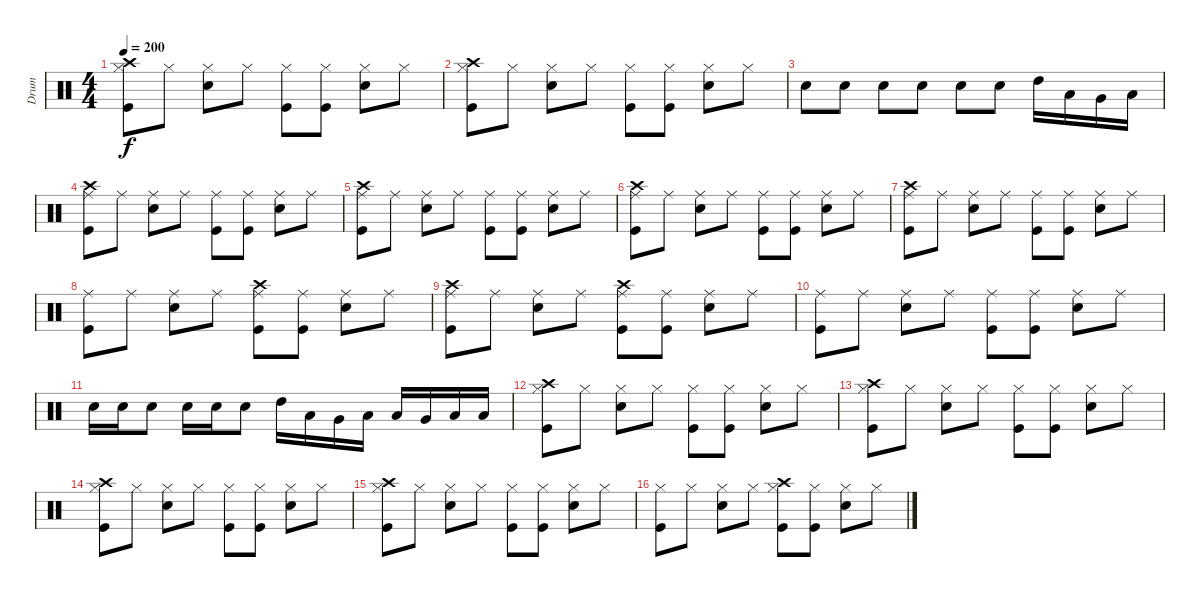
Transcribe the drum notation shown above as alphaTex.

\track ("Drum" "Drum") {instrument percussion}
\staff {score}
\articulation defaults
\ts (4 4)
\tempo 200
\clef neutral
\ks c
("Crash high (hit)" "Hi-Hat (closed)" "Kick (hit)").8{dy f} "Hi-Hat (closed)".8 ("Hi-Hat (closed)" "Electric Snare (hit)").8 "Hi-Hat (closed)".8 ("Hi-Hat (closed)" "Kick (hit)").8 ("Hi-Hat (closed)" "Kick (hit)").8 ("Hi-Hat (closed)" "Electric Snare (hit)").8 "Hi-Hat (closed)".8 |
("Crash high (hit)" "Hi-Hat (closed)" "Kick (hit)").8 "Hi-Hat (closed)".8 ("Hi-Hat (closed)" "Electric Snare (hit)").8 "Hi-Hat (closed)".8 ("Hi-Hat (closed)" "Kick (hit)").8 ("Hi-Hat (closed)" "Kick (hit)").8 ("Hi-Hat (closed)" "Electric Snare (hit)").8 "Hi-Hat (closed)".8 |
"Electric Snare (hit)".8 "Electric Snare (hit)".8 "Electric Snare (hit)".8 "Electric Snare (hit)".8 "Electric Snare (hit)".8 "Electric Snare (hit)".8 "High Tom (hit)".16 "Low Tom (hit)".16 "Very Low Tom (hit)".16 "Low Floor Tom (hit)".16 |
("Crash high (hit)" "Ride (middle)" "Kick (hit)").8 "Ride (middle)".8 ("Ride (middle)" "Electric Snare (hit)").8 "Ride (middle)".8 ("Ride (middle)" "Kick (hit)").8 ("Ride (middle)" "Kick (hit)").8 ("Ride (middle)" "Electric Snare (hit)").8 "Ride (middle)".8 |
("Crash high (hit)" "Ride (middle)" "Kick (hit)").8 "Ride (middle)".8 ("Ride (middle)" "Electric Snare (hit)").8 "Ride (middle)".8 ("Ride (middle)" "Kick (hit)").8 ("Ride (middle)" "Kick (hit)").8 ("Ride (middle)" "Electric Snare (hit)").8 "Ride (middle)".8 |
("Crash high (hit)" "Ride (middle)" "Kick (hit)").8 "Ride (middle)".8 ("Ride (middle)" "Electric Snare (hit)").8 "Ride (middle)".8 ("Ride (middle)" "Kick (hit)").8 ("Ride (middle)" "Kick (hit)").8 ("Ride (middle)" "Electric Snare (hit)").8 "Ride (middle)".8 |
("Crash high (hit)" "Ride (middle)" "Kick (hit)").8 "Ride (middle)".8 ("Ride (middle)" "Electric Snare (hit)").8 "Ride (middle)".8 ("Ride (middle)" "Kick (hit)").8 ("Ride (middle)" "Kick (hit)").8 ("Ride (middle)" "Electric Snare (hit)").8 "Ride (middle)".8 |
("Ride (middle)" "Kick (hit)").8 "Ride (middle)".8 ("Ride (middle)" "Electric Snare (hit)").8 "Ride (middle)".8 ("Crash high (hit)" "Ride (middle)" "Kick (hit)").8 ("Ride (middle)" "Kick (hit)").8 ("Ride (middle)" "Electric Snare (hit)").8 "Ride (middle)".8 |
("Crash high (hit)" "Ride (middle)" "Kick (hit)").8 "Ride (middle)".8 ("Ride (middle)" "Electric Snare (hit)").8 "Ride (middle)".8 ("Crash high (hit)" "Ride (middle)" "Kick (hit)").8 ("Ride (middle)" "Kick (hit)").8 ("Ride (middle)" "Electric Snare (hit)").8 "Ride (middle)".8 |
("Ride (middle)" "Kick (hit)").8 "Ride (middle)".8 ("Ride (middle)" "Electric Snare (hit)").8 "Ride (middle)".8 ("Ride (middle)" "Kick (hit)").8 ("Ride (middle)" "Kick (hit)").8 ("Ride (middle)" "Electric Snare (hit)").8 "Ride (middle)".8 |
"Electric Snare (hit)".16 "Electric Snare (hit)".16 "Electric Snare (hit)".8 "Electric Snare (hit)".16 "Electric Snare (hit)".16 "Electric Snare (hit)".8 "High Tom (hit)".16 "Low Tom (hit)".16 "Very Low Tom (hit)".16 "Low Floor Tom (hit)".16 "Low Tom (hit)".16 "Very Low Tom (hit)".16 "Low Floor Tom (hit)".16 "Low Floor Tom (hit)".16 |
("Crash high (hit)" "Hi-Hat (closed)" "Kick (hit)").8 "Hi-Hat (closed)".8 ("Hi-Hat (closed)" "Electric Snare (hit)").8 "Hi-Hat (closed)".8 ("Hi-Hat (closed)" "Kick (hit)").8 ("Hi-Hat (closed)" "Kick (hit)").8 ("Hi-Hat (closed)" "Electric Snare (hit)").8 "Hi-Hat (closed)".8 |
("Crash high (hit)" "Hi-Hat (closed)" "Kick (hit)").8 "Hi-Hat (closed)".8 ("Hi-Hat (closed)" "Electric Snare (hit)").8 "Hi-Hat (closed)".8 ("Hi-Hat (closed)" "Kick (hit)").8 ("Hi-Hat (closed)" "Kick (hit)").8 ("Hi-Hat (closed)" "Electric Snare (hit)").8 "Hi-Hat (closed)".8 |
("Crash high (hit)" "Hi-Hat (closed)" "Kick (hit)").8 "Hi-Hat (closed)".8 ("Hi-Hat (closed)" "Electric Snare (hit)").8 "Hi-Hat (closed)".8 ("Hi-Hat (closed)" "Kick (hit)").8 ("Hi-Hat (closed)" "Kick (hit)").8 ("Hi-Hat (closed)" "Electric Snare (hit)").8 "Hi-Hat (closed)".8 |
("Crash high (hit)" "Hi-Hat (closed)" "Kick (hit)").8 "Hi-Hat (closed)".8 ("Hi-Hat (closed)" "Electric Snare (hit)").8 "Hi-Hat (closed)".8 ("Hi-Hat (closed)" "Kick (hit)").8 ("Hi-Hat (closed)" "Kick (hit)").8 ("Hi-Hat (closed)" "Electric Snare (hit)").8 "Hi-Hat (closed)".8 |
("Hi-Hat (closed)" "Kick (hit)").8 "Hi-Hat (closed)".8 ("Hi-Hat (closed)" "Electric Snare (hit)").8 "Hi-Hat (closed)".8 ("Crash high (hit)" "Hi-Hat (closed)" "Kick (hit)").8 ("Hi-Hat (closed)" "Kick (hit)").8 ("Hi-Hat (closed)" "Electric Snare (hit)").8 "Hi-Hat (closed)".8
